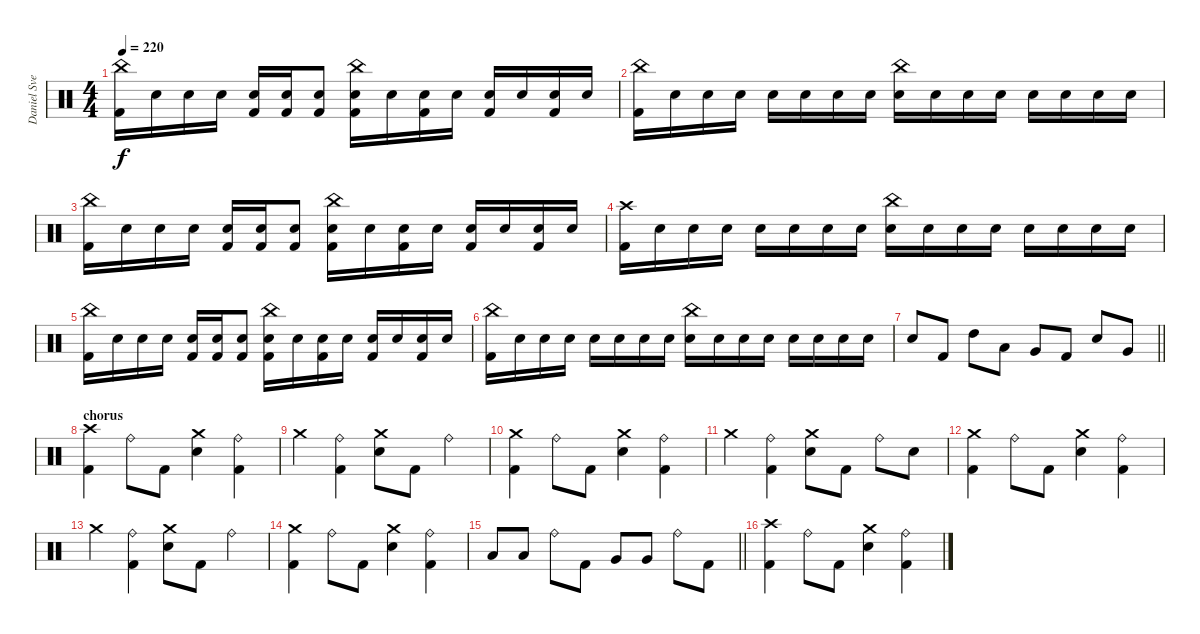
\track ("Daniel Svensson" "Daniel Sve") {instrument percussion}
\staff {score}
\articulation defaults
\ts (4 4)
\tempo 220
\clef neutral
\ks c
("China (hit)" "Kick (hit) 2").16{dy f} "Snare (hit)".16 "Snare (hit)".16 "Snare (hit)".16 ("Snare (hit)" "Kick (hit) 2").16 ("Snare (hit)" "Kick (hit) 2").16 ("Snare (hit)" "Kick (hit) 2").8 ("China (hit)" "Electric Snare (hit)" "Kick (hit) 2").16 "Snare (hit)".16 ("Snare (hit)" "Kick (hit) 2").16 "Snare (hit)".16 ("Snare (hit)" "Kick (hit) 2").16 "Snare (hit)".16 ("Snare (hit)" "Kick (hit) 2").16 "Snare (hit)".16 |
("China (hit)" "Kick (hit) 2").16 "Snare (hit)".16 "Snare (hit)".16 "Snare (hit)".16 "Snare (hit)".16 "Snare (hit)".16 "Snare (hit)".16 "Snare (hit)".16 ("China (hit)" "Electric Snare (hit)").16 "Snare (hit)".16 "Snare (hit)".16 "Snare (hit)".16 "Snare (hit)".16 "Snare (hit)".16 "Snare (hit)".16 "Snare (hit)".16 |
("China (hit)" "Kick (hit) 2").16 "Snare (hit)".16 "Snare (hit)".16 "Snare (hit)".16 ("Snare (hit)" "Kick (hit) 2").16 ("Snare (hit)" "Kick (hit) 2").16 ("Snare (hit)" "Kick (hit) 2").8 ("China (hit)" "Electric Snare (hit)" "Kick (hit) 2").16 "Snare (hit)".16 ("Snare (hit)" "Kick (hit) 2").16 "Snare (hit)".16 ("Snare (hit)" "Kick (hit) 2").16 "Snare (hit)".16 ("Snare (hit)" "Kick (hit) 2").16 "Snare (hit)".16 |
("Crash high (hit)" "Kick (hit) 2").16 "Snare (hit)".16 "Snare (hit)".16 "Snare (hit)".16 "Snare (hit)".16 "Snare (hit)".16 "Snare (hit)".16 "Snare (hit)".16 ("China (hit)" "Electric Snare (hit)").16 "Snare (hit)".16 "Snare (hit)".16 "Snare (hit)".16 "Snare (hit)".16 "Snare (hit)".16 "Snare (hit)".16 "Snare (hit)".16 |
("China (hit)" "Kick (hit) 2").16 "Snare (hit)".16 "Snare (hit)".16 "Snare (hit)".16 ("Snare (hit)" "Kick (hit) 2").16 ("Snare (hit)" "Kick (hit) 2").16 ("Snare (hit)" "Kick (hit) 2").8 ("China (hit)" "Electric Snare (hit)" "Kick (hit) 2").16 "Snare (hit)".16 ("Snare (hit)" "Kick (hit) 2").16 "Snare (hit)".16 ("Snare (hit)" "Kick (hit) 2").16 "Snare (hit)".16 ("Snare (hit)" "Kick (hit) 2").16 "Snare (hit)".16 |
("China (hit)" "Kick (hit) 2").16 "Snare (hit)".16 "Snare (hit)".16 "Snare (hit)".16 "Snare (hit)".16 "Snare (hit)".16 "Snare (hit)".16 "Snare (hit)".16 ("China (hit)" "Electric Snare (hit)").16 "Snare (hit)".16 "Snare (hit)".16 "Snare (hit)".16 "Snare (hit)".16 "Snare (hit)".16 "Snare (hit)".16 "Snare (hit)".16 |
\barLineRight lightlight "Electric Snare (hit)".8 "Kick (hit) 2".8 "High Tom (hit)".8 "Low Tom (hit)".8 "Very Low Tom (hit)".8 "Kick (hit) 2".8 "Electric Snare (hit)".8 "Very Low Tom (hit)".8
|
\section ("" "chorus")
("Crash high (hit)" "Kick (hit) 2").4 "Ride (bell)".8 "Kick (hit) 2".8 ("Crash medium (hit)" "Electric Snare (hit)").4 ("Ride (bell)" "Kick (hit) 2").4 |
"Crash medium (hit)".4 ("Ride (bell)" "Kick (hit) 2").4 ("Crash medium (hit)" "Electric Snare (hit)").8 "Kick (hit) 2".8 "Ride (bell)".4 |
("Crash medium (hit)" "Kick (hit) 2").4 "Ride (bell)".8 "Kick (hit) 2".8 ("Crash medium (hit)" "Electric Snare (hit)").4 ("Ride (bell)" "Kick (hit) 2").4 |
"Crash medium (hit)".4 ("Ride (bell)" "Kick (hit) 2").4 ("Crash medium (hit)" "Electric Snare (hit)").8 "Kick (hit) 2".8 "Ride (bell)".8 "Electric Snare (hit)".8 |
("Crash medium (hit)" "Kick (hit) 2").4 "Ride (bell)".8 "Kick (hit) 2".8 ("Crash medium (hit)" "Electric Snare (hit)").4 ("Ride (bell)" "Kick (hit) 2").4 |
"Crash medium (hit)".4 ("Ride (bell)" "Kick (hit) 2").4 ("Crash medium (hit)" "Electric Snare (hit)").8 "Kick (hit) 2".8 "Ride (bell)".4 |
("Crash medium (hit)" "Kick (hit) 2").4 "Ride (bell)".8 "Kick (hit) 2".8 ("Crash medium (hit)" "Electric Snare (hit)").4 ("Ride (bell)" "Kick (hit) 2").4 |
\barLineRight lightlight "Low Tom (hit)".8 "Low Tom (hit)".8 "Ride (bell)".8 "Kick (hit) 2".8 "Very Low Tom (hit)".8 "Very Low Tom (hit)".8 "Ride (bell)".8 "Kick (hit) 2".8
|
("Crash high (hit)" "Kick (hit) 2").4 "Ride (bell)".8 "Kick (hit) 2".8 ("Crash medium (hit)" "Electric Snare (hit)").4 ("Ride (bell)" "Kick (hit) 2").4
